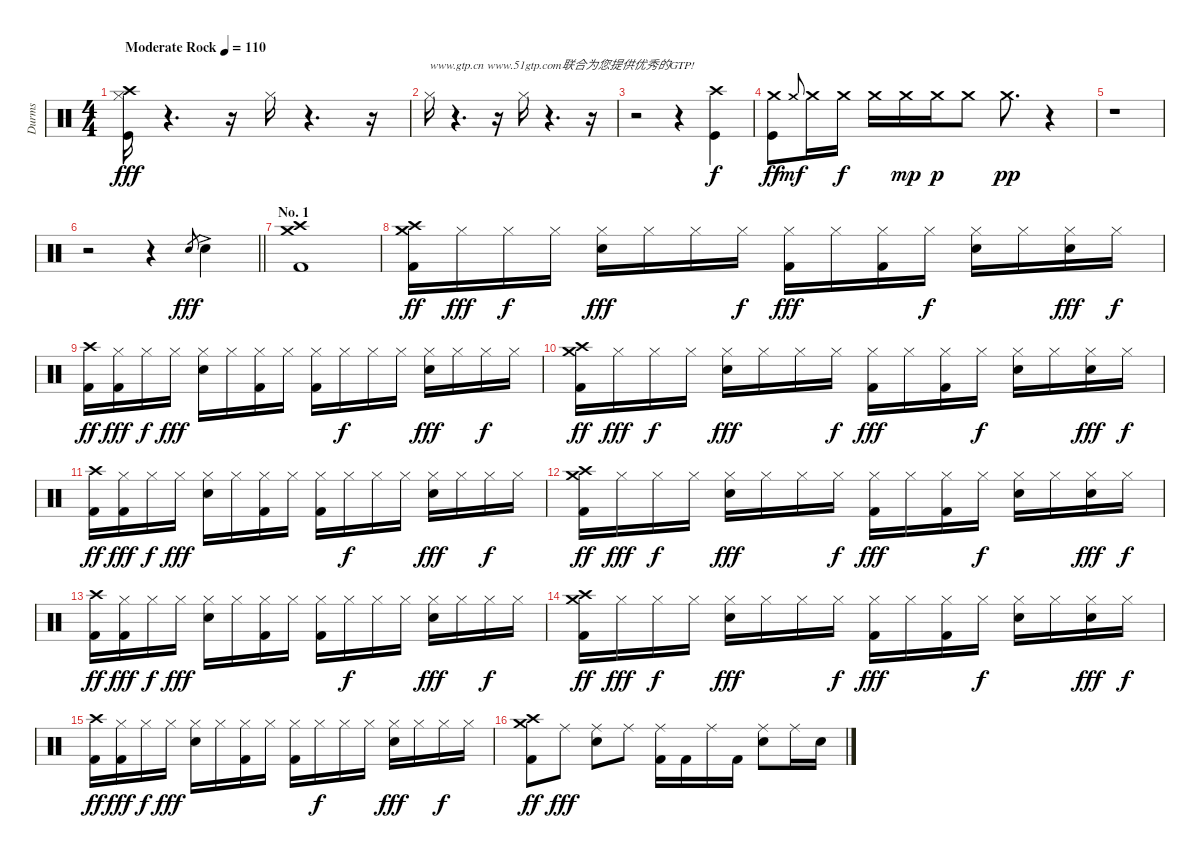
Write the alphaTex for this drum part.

\track ("Durms" "Durms") {instrument percussion}
\staff {score}
\articulation defaults
\ts (4 4)
\tempo (110 "Moderate Rock")
\clef neutral
\ks c
("Kick (hit)" "Hi-Hat (closed)" "Crash high (hit)").16{dy fff} r.4{d} r.16 "Hi-Hat (closed)".16 r.4{d} r.16 |
"Hi-Hat (closed)".16{txt "www.gtp.cn www.51gtp.com联合为您提供优秀的GTP!"} r.4{d} r.16 "Hi-Hat (closed)".16 r.4{d} r.16 |
r.2 r.4 ("Crash high (hit)" "Kick (hit)").4{dy f} |
("Crash medium (hit)" "Kick (hit)").8{dy ff} "Crash medium (hit)".8{gr onbeat dy mf} "Crash medium (hit)".16 "Crash medium (hit)".16{dy f} "Crash medium (hit)".16 "Crash medium (hit)".16{dy mp} "Crash medium (hit)".16{dy p} "Crash medium (hit)".8 "Crash medium (hit)".8{d dy pp} r.4 |
r.1 |
\barLineRight lightlight
r.2 r.4 "Electric Snare (hit)".8{gr dy fff} "Electric Snare (hit)"{ac}.4 |
\section ("" "No. 1")
("Crash medium (hit)" "Crash high (hit)" "Kick (hit) 2").1 |
("Crash medium (hit)" "Crash high (hit)" "Kick (hit) 2").16{dy ff} "Hi-Hat (closed)".16{dy fff} "Hi-Hat (closed)".16{dy f} "Hi-Hat (closed)".16 ("Hi-Hat (closed)" "Electric Snare (hit)").16{dy fff} "Hi-Hat (closed)".16 "Hi-Hat (closed)".16 "Hi-Hat (closed)".16{dy f} ("Hi-Hat (closed)" "Kick (hit) 2").16{dy fff} "Hi-Hat (closed)".16 ("Hi-Hat (closed)" "Kick (hit) 2").16 "Hi-Hat (closed)".16{dy f} ("Hi-Hat (closed)" "Electric Snare (hit)").16 "Hi-Hat (closed)".16 ("Hi-Hat (closed)" "Electric Snare (hit)").16{dy fff} "Hi-Hat (closed)".16{dy f} |
("Crash high (hit)" "Kick (hit) 2").16{dy ff} ("Hi-Hat (closed)" "Kick (hit) 2").16{dy fff} "Hi-Hat (closed)".16{dy f} "Hi-Hat (closed)".16{dy fff} ("Hi-Hat (closed)" "Electric Snare (hit)").16 "Hi-Hat (closed)".16 ("Hi-Hat (closed)" "Kick (hit) 2").16 "Hi-Hat (closed)".16 ("Hi-Hat (closed)" "Kick (hit) 2").16 "Hi-Hat (closed)".16{dy f} "Hi-Hat (closed)".16 "Hi-Hat (closed)".16 ("Hi-Hat (closed)" "Electric Snare (hit)").16{dy fff} "Hi-Hat (closed)".16 "Hi-Hat (closed)".16{dy f} "Hi-Hat (closed)".16 |
("Crash medium (hit)" "Crash high (hit)" "Kick (hit) 2").16{dy ff} "Hi-Hat (closed)".16{dy fff} "Hi-Hat (closed)".16{dy f} "Hi-Hat (closed)".16 ("Hi-Hat (closed)" "Electric Snare (hit)").16{dy fff} "Hi-Hat (closed)".16 "Hi-Hat (closed)".16 "Hi-Hat (closed)".16{dy f} ("Hi-Hat (closed)" "Kick (hit) 2").16{dy fff} "Hi-Hat (closed)".16 ("Hi-Hat (closed)" "Kick (hit) 2").16 "Hi-Hat (closed)".16{dy f} ("Hi-Hat (closed)" "Electric Snare (hit)").16 "Hi-Hat (closed)".16 ("Hi-Hat (closed)" "Electric Snare (hit)").16{dy fff} "Hi-Hat (closed)".16{dy f} |
("Crash high (hit)" "Kick (hit) 2").16{dy ff} ("Hi-Hat (closed)" "Kick (hit) 2").16{dy fff} "Hi-Hat (closed)".16{dy f} "Hi-Hat (closed)".16{dy fff} ("Hi-Hat (closed)" "Electric Snare (hit)").16 "Hi-Hat (closed)".16 ("Hi-Hat (closed)" "Kick (hit) 2").16 "Hi-Hat (closed)".16 ("Hi-Hat (closed)" "Kick (hit) 2").16 "Hi-Hat (closed)".16{dy f} "Hi-Hat (closed)".16 "Hi-Hat (closed)".16 ("Hi-Hat (closed)" "Electric Snare (hit)").16{dy fff} "Hi-Hat (closed)".16 "Hi-Hat (closed)".16{dy f} "Hi-Hat (closed)".16 |
("Crash medium (hit)" "Crash high (hit)" "Kick (hit) 2").16{dy ff} "Hi-Hat (closed)".16{dy fff} "Hi-Hat (closed)".16{dy f} "Hi-Hat (closed)".16 ("Hi-Hat (closed)" "Electric Snare (hit)").16{dy fff} "Hi-Hat (closed)".16 "Hi-Hat (closed)".16 "Hi-Hat (closed)".16{dy f} ("Hi-Hat (closed)" "Kick (hit) 2").16{dy fff} "Hi-Hat (closed)".16 ("Hi-Hat (closed)" "Kick (hit) 2").16 "Hi-Hat (closed)".16{dy f} ("Hi-Hat (closed)" "Electric Snare (hit)").16 "Hi-Hat (closed)".16 ("Hi-Hat (closed)" "Electric Snare (hit)").16{dy fff} "Hi-Hat (closed)".16{dy f} |
("Crash high (hit)" "Kick (hit) 2").16{dy ff} ("Hi-Hat (closed)" "Kick (hit) 2").16{dy fff} "Hi-Hat (closed)".16{dy f} "Hi-Hat (closed)".16{dy fff} ("Hi-Hat (closed)" "Electric Snare (hit)").16 "Hi-Hat (closed)".16 ("Hi-Hat (closed)" "Kick (hit) 2").16 "Hi-Hat (closed)".16 ("Hi-Hat (closed)" "Kick (hit) 2").16 "Hi-Hat (closed)".16{dy f} "Hi-Hat (closed)".16 "Hi-Hat (closed)".16 ("Hi-Hat (closed)" "Electric Snare (hit)").16{dy fff} "Hi-Hat (closed)".16 "Hi-Hat (closed)".16{dy f} "Hi-Hat (closed)".16 |
("Crash medium (hit)" "Crash high (hit)" "Kick (hit) 2").16{dy ff} "Hi-Hat (closed)".16{dy fff} "Hi-Hat (closed)".16{dy f} "Hi-Hat (closed)".16 ("Hi-Hat (closed)" "Electric Snare (hit)").16{dy fff} "Hi-Hat (closed)".16 "Hi-Hat (closed)".16 "Hi-Hat (closed)".16{dy f} ("Hi-Hat (closed)" "Kick (hit) 2").16{dy fff} "Hi-Hat (closed)".16 ("Hi-Hat (closed)" "Kick (hit) 2").16 "Hi-Hat (closed)".16{dy f} ("Hi-Hat (closed)" "Electric Snare (hit)").16 "Hi-Hat (closed)".16 ("Hi-Hat (closed)" "Electric Snare (hit)").16{dy fff} "Hi-Hat (closed)".16{dy f} |
("Crash high (hit)" "Kick (hit) 2").16{dy ff} ("Hi-Hat (closed)" "Kick (hit) 2").16{dy fff} "Hi-Hat (closed)".16{dy f} "Hi-Hat (closed)".16{dy fff} ("Hi-Hat (closed)" "Electric Snare (hit)").16 "Hi-Hat (closed)".16 ("Hi-Hat (closed)" "Kick (hit) 2").16 "Hi-Hat (closed)".16 ("Hi-Hat (closed)" "Kick (hit) 2").16 "Hi-Hat (closed)".16{dy f} "Hi-Hat (closed)".16 "Hi-Hat (closed)".16 ("Hi-Hat (closed)" "Electric Snare (hit)").16{dy fff} "Hi-Hat (closed)".16 "Hi-Hat (closed)".16{dy f} "Hi-Hat (closed)".16 |
("Crash medium (hit)" "Crash high (hit)" "Kick (hit) 2").8{dy ff} "Ride (middle)".8{dy fff} ("Ride (middle)" "Electric Snare (hit)").8 "Ride (middle)".8 ("Ride (middle)" "Kick (hit) 2").16 "Kick (hit) 2".16 "Ride (middle)".16 "Kick (hit) 2".16 ("Ride (middle)" "Electric Snare (hit)").8 "Ride (middle)".16 "Electric Snare (hit)".16
